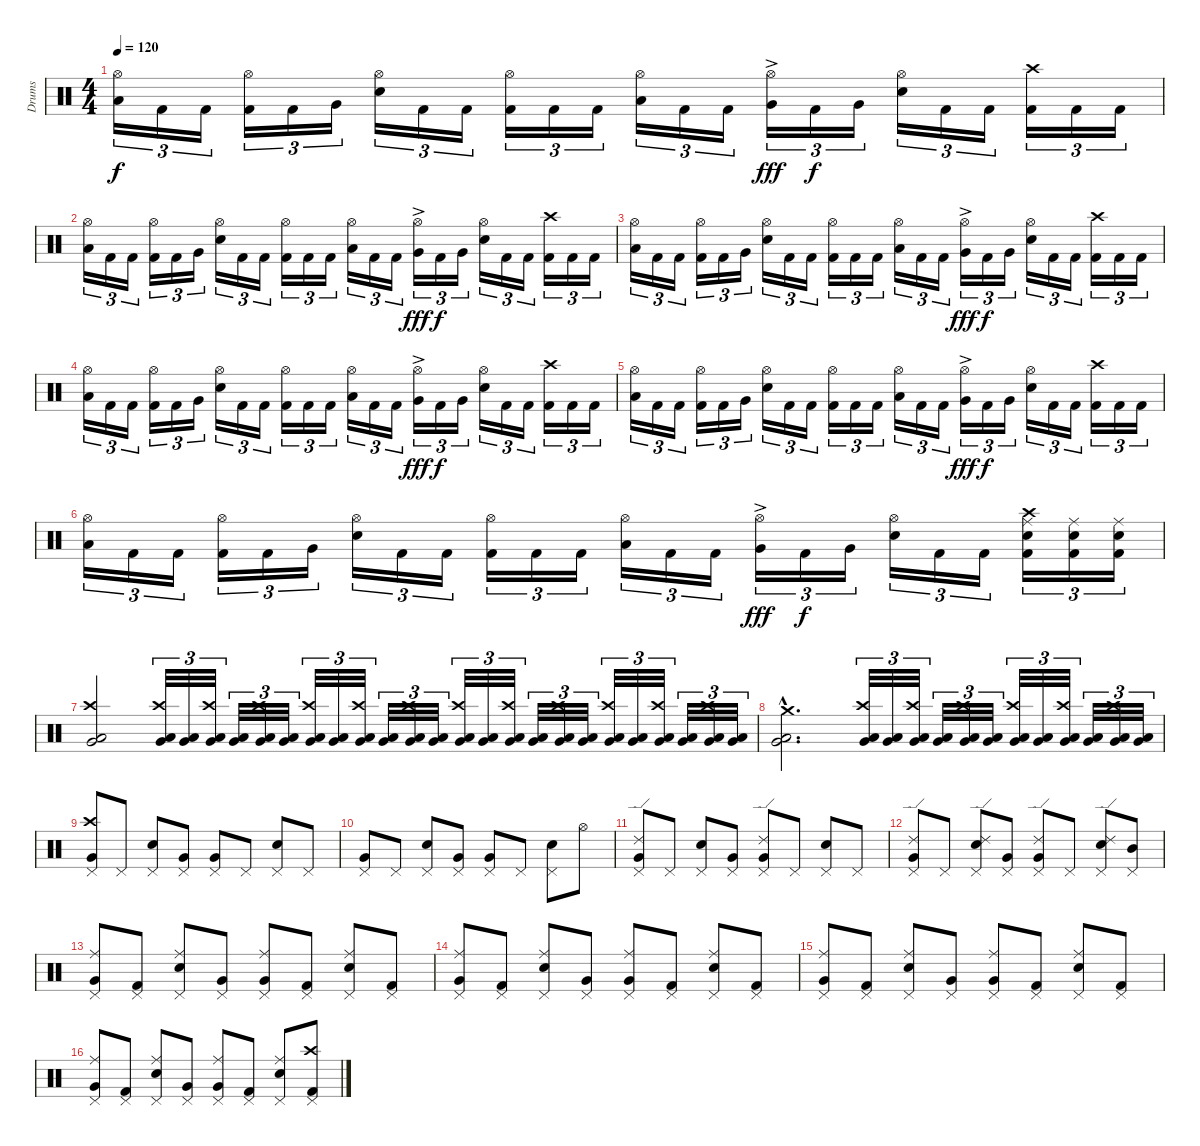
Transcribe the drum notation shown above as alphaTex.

\track ("Drums" "Drums") {instrument percussion}
\staff {score}
\articulation defaults
\ts (4 4)
\tempo 120
\clef neutral
\ks c
("Hi-Hat (open)" "Low Tom (hit)").16{tu (3 2) dy f} "Kick (hit) 2".16{tu (3 2)} "Kick (hit) 2".16{tu (3 2)} ("Hi-Hat (open)" "Kick (hit) 2").16{tu (3 2)} "Kick (hit) 2".16{tu (3 2)} "Very Low Tom (hit)".16{tu (3 2)} ("Hi-Hat (open)" "Electric Snare (hit)").16{tu (3 2)} "Kick (hit) 2".16{tu (3 2)} "Kick (hit) 2".16{tu (3 2)} ("Hi-Hat (open)" "Kick (hit) 2").16{tu (3 2)} "Kick (hit) 2".16{tu (3 2)} "Kick (hit) 2".16{tu (3 2)} ("Hi-Hat (open)" "Low Tom (hit)").16{tu (3 2)} "Kick (hit) 2".16{tu (3 2)} "Kick (hit) 2".16{tu (3 2)} ("Hi-Hat (open)" "Very Low Tom (hit)"{ac}).16{tu (3 2) dy fff} "Kick (hit) 2".16{tu (3 2) dy f} "Very Low Tom (hit)".16{tu (3 2)} ("Hi-Hat (open)" "Electric Snare (hit)").16{tu (3 2)} "Kick (hit) 2".16{tu (3 2)} "Kick (hit) 2".16{tu (3 2)} ("Crash high (hit)" "Kick (hit) 2").16{tu (3 2)} "Kick (hit) 2".16{tu (3 2)} "Kick (hit) 2".16{tu (3 2)} |
("Hi-Hat (open)" "Low Tom (hit)").16{tu (3 2)} "Kick (hit) 2".16{tu (3 2)} "Kick (hit) 2".16{tu (3 2)} ("Hi-Hat (open)" "Kick (hit) 2").16{tu (3 2)} "Kick (hit) 2".16{tu (3 2)} "Very Low Tom (hit)".16{tu (3 2)} ("Hi-Hat (open)" "Electric Snare (hit)").16{tu (3 2)} "Kick (hit) 2".16{tu (3 2)} "Kick (hit) 2".16{tu (3 2)} ("Hi-Hat (open)" "Kick (hit) 2").16{tu (3 2)} "Kick (hit) 2".16{tu (3 2)} "Kick (hit) 2".16{tu (3 2)} ("Hi-Hat (open)" "Low Tom (hit)").16{tu (3 2)} "Kick (hit) 2".16{tu (3 2)} "Kick (hit) 2".16{tu (3 2)} ("Hi-Hat (open)" "Very Low Tom (hit)"{ac}).16{tu (3 2) dy fff} "Kick (hit) 2".16{tu (3 2) dy f} "Very Low Tom (hit)".16{tu (3 2)} ("Hi-Hat (open)" "Electric Snare (hit)").16{tu (3 2)} "Kick (hit) 2".16{tu (3 2)} "Kick (hit) 2".16{tu (3 2)} ("Crash high (hit)" "Kick (hit) 2").16{tu (3 2)} "Kick (hit) 2".16{tu (3 2)} "Kick (hit) 2".16{tu (3 2)} |
("Hi-Hat (open)" "Low Tom (hit)").16{tu (3 2)} "Kick (hit) 2".16{tu (3 2)} "Kick (hit) 2".16{tu (3 2)} ("Hi-Hat (open)" "Kick (hit) 2").16{tu (3 2)} "Kick (hit) 2".16{tu (3 2)} "Very Low Tom (hit)".16{tu (3 2)} ("Hi-Hat (open)" "Electric Snare (hit)").16{tu (3 2)} "Kick (hit) 2".16{tu (3 2)} "Kick (hit) 2".16{tu (3 2)} ("Hi-Hat (open)" "Kick (hit) 2").16{tu (3 2)} "Kick (hit) 2".16{tu (3 2)} "Kick (hit) 2".16{tu (3 2)} ("Hi-Hat (open)" "Low Tom (hit)").16{tu (3 2)} "Kick (hit) 2".16{tu (3 2)} "Kick (hit) 2".16{tu (3 2)} ("Hi-Hat (open)" "Very Low Tom (hit)"{ac}).16{tu (3 2) dy fff} "Kick (hit) 2".16{tu (3 2) dy f} "Very Low Tom (hit)".16{tu (3 2)} ("Hi-Hat (open)" "Electric Snare (hit)").16{tu (3 2)} "Kick (hit) 2".16{tu (3 2)} "Kick (hit) 2".16{tu (3 2)} ("Crash high (hit)" "Kick (hit) 2").16{tu (3 2)} "Kick (hit) 2".16{tu (3 2)} "Kick (hit) 2".16{tu (3 2)} |
("Hi-Hat (open)" "Low Tom (hit)").16{tu (3 2)} "Kick (hit) 2".16{tu (3 2)} "Kick (hit) 2".16{tu (3 2)} ("Hi-Hat (open)" "Kick (hit) 2").16{tu (3 2)} "Kick (hit) 2".16{tu (3 2)} "Very Low Tom (hit)".16{tu (3 2)} ("Hi-Hat (open)" "Electric Snare (hit)").16{tu (3 2)} "Kick (hit) 2".16{tu (3 2)} "Kick (hit) 2".16{tu (3 2)} ("Hi-Hat (open)" "Kick (hit) 2").16{tu (3 2)} "Kick (hit) 2".16{tu (3 2)} "Kick (hit) 2".16{tu (3 2)} ("Hi-Hat (open)" "Low Tom (hit)").16{tu (3 2)} "Kick (hit) 2".16{tu (3 2)} "Kick (hit) 2".16{tu (3 2)} ("Hi-Hat (open)" "Very Low Tom (hit)"{ac}).16{tu (3 2) dy fff} "Kick (hit) 2".16{tu (3 2) dy f} "Very Low Tom (hit)".16{tu (3 2)} ("Hi-Hat (open)" "Electric Snare (hit)").16{tu (3 2)} "Kick (hit) 2".16{tu (3 2)} "Kick (hit) 2".16{tu (3 2)} ("Crash high (hit)" "Kick (hit) 2").16{tu (3 2)} "Kick (hit) 2".16{tu (3 2)} "Kick (hit) 2".16{tu (3 2)} |
("Hi-Hat (open)" "Low Tom (hit)").16{tu (3 2)} "Kick (hit) 2".16{tu (3 2)} "Kick (hit) 2".16{tu (3 2)} ("Hi-Hat (open)" "Kick (hit) 2").16{tu (3 2)} "Kick (hit) 2".16{tu (3 2)} "Very Low Tom (hit)".16{tu (3 2)} ("Hi-Hat (open)" "Electric Snare (hit)").16{tu (3 2)} "Kick (hit) 2".16{tu (3 2)} "Kick (hit) 2".16{tu (3 2)} ("Hi-Hat (open)" "Kick (hit) 2").16{tu (3 2)} "Kick (hit) 2".16{tu (3 2)} "Kick (hit) 2".16{tu (3 2)} ("Hi-Hat (open)" "Low Tom (hit)").16{tu (3 2)} "Kick (hit) 2".16{tu (3 2)} "Kick (hit) 2".16{tu (3 2)} ("Hi-Hat (open)" "Very Low Tom (hit)"{ac}).16{tu (3 2) dy fff} "Kick (hit) 2".16{tu (3 2) dy f} "Very Low Tom (hit)".16{tu (3 2)} ("Hi-Hat (open)" "Electric Snare (hit)").16{tu (3 2)} "Kick (hit) 2".16{tu (3 2)} "Kick (hit) 2".16{tu (3 2)} ("Crash high (hit)" "Kick (hit) 2").16{tu (3 2)} "Kick (hit) 2".16{tu (3 2)} "Kick (hit) 2".16{tu (3 2)} |
("Hi-Hat (open)" "Low Tom (hit)").16{tu (3 2)} "Kick (hit) 2".16{tu (3 2)} "Kick (hit) 2".16{tu (3 2)} ("Hi-Hat (open)" "Kick (hit) 2").16{tu (3 2)} "Kick (hit) 2".16{tu (3 2)} "Very Low Tom (hit)".16{tu (3 2)} ("Hi-Hat (open)" "Electric Snare (hit)").16{tu (3 2)} "Kick (hit) 2".16{tu (3 2)} "Kick (hit) 2".16{tu (3 2)} ("Hi-Hat (open)" "Kick (hit) 2").16{tu (3 2)} "Kick (hit) 2".16{tu (3 2)} "Kick (hit) 2".16{tu (3 2)} ("Hi-Hat (open)" "Low Tom (hit)").16{tu (3 2)} "Kick (hit) 2".16{tu (3 2)} "Kick (hit) 2".16{tu (3 2)} ("Hi-Hat (open)" "Very Low Tom (hit)"{ac}).16{tu (3 2) dy fff} "Kick (hit) 2".16{tu (3 2) dy f} "Very Low Tom (hit)".16{tu (3 2)} ("Hi-Hat (open)" "Electric Snare (hit)").16{tu (3 2)} "Kick (hit) 2".16{tu (3 2)} "Kick (hit) 2".16{tu (3 2)} ("Crash high (hit)" "Ride (middle)" "Kick (hit) 2" "Electric Snare (hit)").16{tu (3 2)} ("Ride (middle)" "Kick (hit) 2" "Electric Snare (hit)").16{tu (3 2)} ("Ride (middle)" "Kick (hit) 2" "Electric Snare (hit)").16{tu (3 2)} |
("Crash high (hit)" "Low Floor Tom (hit)" "Very Low Tom (hit)").2 ("Crash high (hit)" "Low Floor Tom (hit)" "Very Low Tom (hit)").32{tu (3 2)} ("Low Floor Tom (hit)" "Very Low Tom (hit)").32{tu (3 2)} ("Crash high (hit)" "Low Floor Tom (hit)" "Very Low Tom (hit)").32{tu (3 2)} ("Low Floor Tom (hit)" "Very Low Tom (hit)").32{tu (3 2)} ("Crash high (hit)" "Low Floor Tom (hit)" "Very Low Tom (hit)").32{tu (3 2)} ("Low Floor Tom (hit)" "Very Low Tom (hit)").32{tu (3 2)} ("Crash high (hit)" "Low Floor Tom (hit)" "Very Low Tom (hit)").32{tu (3 2)} ("Low Floor Tom (hit)" "Very Low Tom (hit)").32{tu (3 2)} ("Crash high (hit)" "Low Floor Tom (hit)" "Very Low Tom (hit)").32{tu (3 2)} ("Low Floor Tom (hit)" "Very Low Tom (hit)").32{tu (3 2)} ("Crash high (hit)" "Low Floor Tom (hit)" "Very Low Tom (hit)").32{tu (3 2)} ("Low Floor Tom (hit)" "Very Low Tom (hit)").32{tu (3 2)} ("Crash high (hit)" "Low Floor Tom (hit)" "Very Low Tom (hit)").32{tu (3 2)} ("Low Floor Tom (hit)" "Very Low Tom (hit)").32{tu (3 2)} ("Crash high (hit)" "Low Floor Tom (hit)" "Very Low Tom (hit)").32{tu (3 2)} ("Low Floor Tom (hit)" "Very Low Tom (hit)").32{tu (3 2)} ("Crash high (hit)" "Low Floor Tom (hit)" "Very Low Tom (hit)").32{tu (3 2)} ("Low Floor Tom (hit)" "Very Low Tom (hit)").32{tu (3 2)} ("Crash high (hit)" "Low Floor Tom (hit)" "Very Low Tom (hit)").32{tu (3 2)} ("Low Floor Tom (hit)" "Very Low Tom (hit)").32{tu (3 2)} ("Crash high (hit)" "Low Floor Tom (hit)" "Very Low Tom (hit)").32{tu (3 2)} ("Low Floor Tom (hit)" "Very Low Tom (hit)").32{tu (3 2)} ("Crash high (hit)" "Low Floor Tom (hit)" "Very Low Tom (hit)").32{tu (3 2)} ("Low Floor Tom (hit)" "Very Low Tom (hit)").32{tu (3 2)} |
("Crash medium (hit)"{hac} "Low Floor Tom (hit)"{hac} "Very Low Tom (hit)"{hac}).2{d} ("Crash high (hit)" "Low Floor Tom (hit)" "Very Low Tom (hit)").32{tu (3 2)} ("Low Floor Tom (hit)" "Very Low Tom (hit)").32{tu (3 2)} ("Crash high (hit)" "Low Floor Tom (hit)" "Very Low Tom (hit)").32{tu (3 2)} ("Low Floor Tom (hit)" "Very Low Tom (hit)").32{tu (3 2)} ("Crash high (hit)" "Low Floor Tom (hit)" "Very Low Tom (hit)").32{tu (3 2)} ("Low Floor Tom (hit)" "Very Low Tom (hit)").32{tu (3 2)} ("Crash high (hit)" "Low Floor Tom (hit)" "Very Low Tom (hit)").32{tu (3 2)} ("Low Floor Tom (hit)" "Very Low Tom (hit)").32{tu (3 2)} ("Crash high (hit)" "Low Floor Tom (hit)" "Very Low Tom (hit)").32{tu (3 2)} ("Low Floor Tom (hit)" "Very Low Tom (hit)").32{tu (3 2)} ("Crash high (hit)" "Low Floor Tom (hit)" "Very Low Tom (hit)").32{tu (3 2)} ("Low Floor Tom (hit)" "Very Low Tom (hit)").32{tu (3 2)} |
("Crash high (hit)" "Pedal Hi-Hat (hit)" "Very Low Tom (hit)").8 "Pedal Hi-Hat (hit)".8 ("Pedal Hi-Hat (hit)" "Electric Snare (hit)").8 ("Pedal Hi-Hat (hit)" "Very Low Tom (hit)").8 ("Pedal Hi-Hat (hit)" "Very Low Tom (hit)").8 "Pedal Hi-Hat (hit)".8 ("Pedal Hi-Hat (hit)" "Electric Snare (hit)").8 "Pedal Hi-Hat (hit)".8 |
("Pedal Hi-Hat (hit)" "Very Low Tom (hit)").8 "Pedal Hi-Hat (hit)".8 ("Pedal Hi-Hat (hit)" "Electric Snare (hit)").8 ("Pedal Hi-Hat (hit)" "Very Low Tom (hit)").8 ("Pedal Hi-Hat (hit)" "Very Low Tom (hit)").8 "Pedal Hi-Hat (hit)".8 ("Pedal Hi-Hat (hit)" "Electric Snare (hit)").8 "Hi-Hat (open)".8 |
("Pedal Hi-Hat (hit)" "Ride (edge) 2" "Very Low Tom (hit)").8 "Pedal Hi-Hat (hit)".8 ("Pedal Hi-Hat (hit)" "Electric Snare (hit)").8 ("Pedal Hi-Hat (hit)" "Very Low Tom (hit)").8 ("Pedal Hi-Hat (hit)" "Ride (edge) 2" "Very Low Tom (hit)").8 "Pedal Hi-Hat (hit)".8 ("Pedal Hi-Hat (hit)" "Electric Snare (hit)").8 "Pedal Hi-Hat (hit)".8 |
("Pedal Hi-Hat (hit)" "Ride (edge) 2" "Very Low Tom (hit)").8 "Pedal Hi-Hat (hit)".8 ("Pedal Hi-Hat (hit)" "Ride (edge) 2" "Electric Snare (hit)").8 ("Pedal Hi-Hat (hit)" "Very Low Tom (hit)").8 ("Pedal Hi-Hat (hit)" "Ride (edge) 2" "Very Low Tom (hit)").8 "Pedal Hi-Hat (hit)".8 ("Pedal Hi-Hat (hit)" "Ride (edge) 2" "Electric Snare (hit)").8 ("Pedal Hi-Hat (hit)" "Mid Tom (hit)").8 |
("Pedal Hi-Hat (hit)" "Ride (middle)" "Very Low Tom (hit)").8 ("Pedal Hi-Hat (hit)" "Kick (hit) 2").8 ("Pedal Hi-Hat (hit)" "Ride (middle)" "Electric Snare (hit)").8 ("Pedal Hi-Hat (hit)" "Very Low Tom (hit)").8 ("Pedal Hi-Hat (hit)" "Ride (middle)" "Very Low Tom (hit)").8 ("Pedal Hi-Hat (hit)" "Kick (hit) 2").8 ("Pedal Hi-Hat (hit)" "Ride (middle)" "Electric Snare (hit)").8 ("Pedal Hi-Hat (hit)" "Kick (hit) 2").8 |
("Pedal Hi-Hat (hit)" "Ride (middle)" "Very Low Tom (hit)").8 ("Pedal Hi-Hat (hit)" "Kick (hit) 2").8 ("Pedal Hi-Hat (hit)" "Ride (middle)" "Electric Snare (hit)").8 ("Pedal Hi-Hat (hit)" "Very Low Tom (hit)").8 ("Pedal Hi-Hat (hit)" "Ride (middle)" "Very Low Tom (hit)").8 ("Pedal Hi-Hat (hit)" "Kick (hit) 2").8 ("Pedal Hi-Hat (hit)" "Ride (middle)" "Electric Snare (hit)").8 ("Pedal Hi-Hat (hit)" "Kick (hit) 2").8 |
("Pedal Hi-Hat (hit)" "Ride (middle)" "Very Low Tom (hit)").8 ("Pedal Hi-Hat (hit)" "Kick (hit) 2").8 ("Pedal Hi-Hat (hit)" "Ride (middle)" "Electric Snare (hit)").8 ("Pedal Hi-Hat (hit)" "Very Low Tom (hit)").8 ("Pedal Hi-Hat (hit)" "Ride (middle)" "Very Low Tom (hit)").8 ("Pedal Hi-Hat (hit)" "Kick (hit) 2").8 ("Pedal Hi-Hat (hit)" "Ride (middle)" "Electric Snare (hit)").8 ("Pedal Hi-Hat (hit)" "Kick (hit) 2").8 |
("Pedal Hi-Hat (hit)" "Ride (middle)" "Very Low Tom (hit)").8 ("Pedal Hi-Hat (hit)" "Kick (hit) 2").8 ("Pedal Hi-Hat (hit)" "Ride (middle)" "Electric Snare (hit)").8 ("Pedal Hi-Hat (hit)" "Very Low Tom (hit)").8 ("Pedal Hi-Hat (hit)" "Ride (middle)" "Very Low Tom (hit)").8 ("Pedal Hi-Hat (hit)" "Kick (hit) 2").8 ("Pedal Hi-Hat (hit)" "Ride (middle)" "Electric Snare (hit)").8 ("Crash high (hit)" "Pedal Hi-Hat (hit)" "Kick (hit) 2").8
